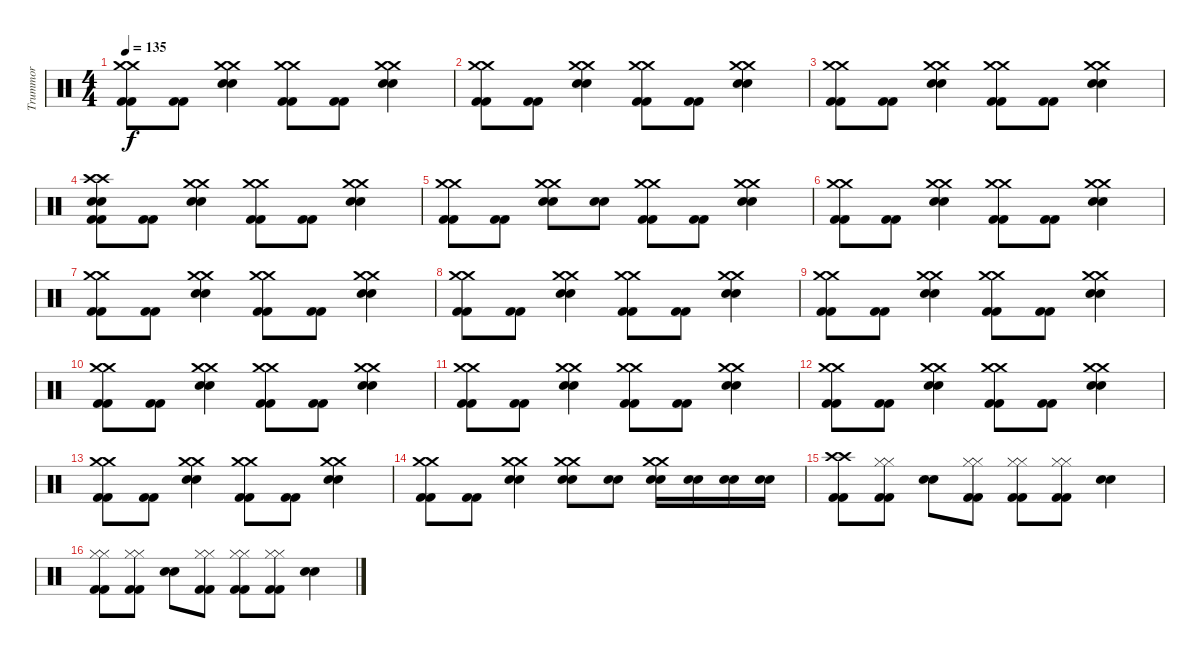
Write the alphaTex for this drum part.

\track ("Trummor" "Trummor") {instrument percussion}
\staff {score}
\articulation defaults
\ts (4 4)
\tempo 135
\clef neutral
\ks c
("Crash medium (hit)" "Crash medium (hit)" "Kick (hit) 2" "Kick (hit) 2").8{dy f} ("Kick (hit) 2" "Kick (hit) 2").8 ("Crash medium (hit)" "Crash medium (hit)" "Snare (hit) 2" "Snare (hit) 2").4 ("Crash medium (hit)" "Crash medium (hit)" "Kick (hit) 2" "Kick (hit) 2").8 ("Kick (hit) 2" "Kick (hit) 2").8 ("Crash medium (hit)" "Crash medium (hit)" "Snare (hit) 2" "Snare (hit) 2").4 |
("Crash medium (hit)" "Crash medium (hit)" "Kick (hit) 2" "Kick (hit) 2").8 ("Kick (hit) 2" "Kick (hit) 2").8 ("Crash medium (hit)" "Crash medium (hit)" "Snare (hit) 2" "Snare (hit) 2").4 ("Crash medium (hit)" "Crash medium (hit)" "Kick (hit) 2" "Kick (hit) 2").8 ("Kick (hit) 2" "Kick (hit) 2").8 ("Crash medium (hit)" "Crash medium (hit)" "Snare (hit) 2" "Snare (hit) 2").4 |
("Crash medium (hit)" "Crash medium (hit)" "Kick (hit) 2" "Kick (hit) 2").8 ("Kick (hit) 2" "Kick (hit) 2").8 ("Crash medium (hit)" "Crash medium (hit)" "Snare (hit) 2" "Snare (hit) 2").4 ("Crash medium (hit)" "Crash medium (hit)" "Kick (hit) 2" "Kick (hit) 2").8 ("Kick (hit) 2" "Kick (hit) 2").8 ("Crash medium (hit)" "Crash medium (hit)" "Snare (hit) 2" "Snare (hit) 2").4 |
("Crash high (hit)" "Crash high (hit)" "Snare (hit) 2" "Snare (hit) 2" "Kick (hit) 2" "Kick (hit) 2").8 ("Kick (hit) 2" "Kick (hit) 2").8 ("Crash medium (hit)" "Crash medium (hit)" "Snare (hit) 2" "Snare (hit) 2").4 ("Crash medium (hit)" "Crash medium (hit)" "Kick (hit) 2" "Kick (hit) 2").8 ("Kick (hit) 2" "Kick (hit) 2").8 ("Crash medium (hit)" "Crash medium (hit)" "Snare (hit) 2" "Snare (hit) 2").4 |
("Crash medium (hit)" "Crash medium (hit)" "Kick (hit) 2" "Kick (hit) 2").8 ("Kick (hit) 2" "Kick (hit) 2").8 ("Crash medium (hit)" "Crash medium (hit)" "Snare (hit) 2" "Snare (hit) 2").8 ("Snare (hit) 2" "Snare (hit) 2").8 ("Crash medium (hit)" "Crash medium (hit)" "Kick (hit) 2" "Kick (hit) 2").8 ("Kick (hit) 2" "Kick (hit) 2").8 ("Crash medium (hit)" "Crash medium (hit)" "Snare (hit) 2" "Snare (hit) 2").4 |
("Crash medium (hit)" "Crash medium (hit)" "Kick (hit) 2" "Kick (hit) 2").8 ("Kick (hit) 2" "Kick (hit) 2").8 ("Crash medium (hit)" "Crash medium (hit)" "Snare (hit) 2" "Snare (hit) 2").4 ("Crash medium (hit)" "Crash medium (hit)" "Kick (hit) 2" "Kick (hit) 2").8 ("Kick (hit) 2" "Kick (hit) 2").8 ("Crash medium (hit)" "Crash medium (hit)" "Snare (hit) 2" "Snare (hit) 2").4 |
("Crash medium (hit)" "Crash medium (hit)" "Kick (hit) 2" "Kick (hit) 2").8 ("Kick (hit) 2" "Kick (hit) 2").8 ("Crash medium (hit)" "Crash medium (hit)" "Snare (hit) 2" "Snare (hit) 2").4 ("Crash medium (hit)" "Crash medium (hit)" "Kick (hit) 2" "Kick (hit) 2").8 ("Kick (hit) 2" "Kick (hit) 2").8 ("Crash medium (hit)" "Crash medium (hit)" "Snare (hit) 2" "Snare (hit) 2").4 |
("Crash medium (hit)" "Crash medium (hit)" "Kick (hit) 2" "Kick (hit) 2").8 ("Kick (hit) 2" "Kick (hit) 2").8 ("Crash medium (hit)" "Crash medium (hit)" "Snare (hit) 2" "Snare (hit) 2").4 ("Crash medium (hit)" "Crash medium (hit)" "Kick (hit) 2" "Kick (hit) 2").8 ("Kick (hit) 2" "Kick (hit) 2").8 ("Crash medium (hit)" "Crash medium (hit)" "Snare (hit) 2" "Snare (hit) 2").4 |
("Crash medium (hit)" "Crash medium (hit)" "Kick (hit) 2" "Kick (hit) 2").8 ("Kick (hit) 2" "Kick (hit) 2").8 ("Crash medium (hit)" "Crash medium (hit)" "Snare (hit) 2" "Snare (hit) 2").4 ("Crash medium (hit)" "Crash medium (hit)" "Kick (hit) 2" "Kick (hit) 2").8 ("Kick (hit) 2" "Kick (hit) 2").8 ("Crash medium (hit)" "Crash medium (hit)" "Snare (hit) 2" "Snare (hit) 2").4 |
("Crash medium (hit)" "Crash medium (hit)" "Kick (hit) 2" "Kick (hit) 2").8 ("Kick (hit) 2" "Kick (hit) 2").8 ("Crash medium (hit)" "Crash medium (hit)" "Snare (hit) 2" "Snare (hit) 2").4 ("Crash medium (hit)" "Crash medium (hit)" "Kick (hit) 2" "Kick (hit) 2").8 ("Kick (hit) 2" "Kick (hit) 2").8 ("Crash medium (hit)" "Crash medium (hit)" "Snare (hit) 2" "Snare (hit) 2").4 |
("Crash medium (hit)" "Crash medium (hit)" "Kick (hit) 2" "Kick (hit) 2").8 ("Kick (hit) 2" "Kick (hit) 2").8 ("Crash medium (hit)" "Crash medium (hit)" "Snare (hit) 2" "Snare (hit) 2").4 ("Crash medium (hit)" "Crash medium (hit)" "Kick (hit) 2" "Kick (hit) 2").8 ("Kick (hit) 2" "Kick (hit) 2").8 ("Crash medium (hit)" "Crash medium (hit)" "Snare (hit) 2" "Snare (hit) 2").4 |
("Crash medium (hit)" "Crash medium (hit)" "Kick (hit) 2" "Kick (hit) 2").8 ("Kick (hit) 2" "Kick (hit) 2").8 ("Crash medium (hit)" "Crash medium (hit)" "Snare (hit) 2" "Snare (hit) 2").4 ("Crash medium (hit)" "Crash medium (hit)" "Kick (hit) 2" "Kick (hit) 2").8 ("Kick (hit) 2" "Kick (hit) 2").8 ("Crash medium (hit)" "Crash medium (hit)" "Snare (hit) 2" "Snare (hit) 2").4 |
("Crash medium (hit)" "Crash medium (hit)" "Kick (hit) 2" "Kick (hit) 2").8 ("Kick (hit) 2" "Kick (hit) 2").8 ("Crash medium (hit)" "Crash medium (hit)" "Snare (hit) 2" "Snare (hit) 2").4 ("Crash medium (hit)" "Crash medium (hit)" "Kick (hit) 2" "Kick (hit) 2").8 ("Kick (hit) 2" "Kick (hit) 2").8 ("Crash medium (hit)" "Crash medium (hit)" "Snare (hit) 2" "Snare (hit) 2").4 |
("Crash medium (hit)" "Crash medium (hit)" "Kick (hit) 2" "Kick (hit) 2").8 ("Kick (hit) 2" "Kick (hit) 2").8 ("Crash medium (hit)" "Crash medium (hit)" "Snare (hit) 2" "Snare (hit) 2").4 ("Crash medium (hit)" "Crash medium (hit)" "Snare (hit) 2" "Snare (hit) 2").8 ("Snare (hit) 2" "Snare (hit) 2").8 ("Crash medium (hit)" "Crash medium (hit)" "Snare (hit) 2" "Snare (hit) 2").16 ("Snare (hit) 2" "Snare (hit) 2").16 ("Snare (hit) 2" "Snare (hit) 2").16 ("Snare (hit) 2" "Snare (hit) 2").16 |
("Crash high (hit)" "Crash high (hit)" "Kick (hit) 2" "Kick (hit) 2").8 ("Hi-Hat (closed)" "Hi-Hat (closed)" "Kick (hit) 2" "Kick (hit) 2").8 ("Snare (hit) 2" "Snare (hit) 2").8 ("Hi-Hat (closed)" "Hi-Hat (closed)" "Kick (hit) 2" "Kick (hit) 2").8 ("Hi-Hat (closed)" "Hi-Hat (closed)" "Kick (hit) 2" "Kick (hit) 2").8 ("Hi-Hat (closed)" "Hi-Hat (closed)" "Kick (hit) 2" "Kick (hit) 2").8 ("Snare (hit) 2" "Snare (hit) 2").4 |
("Hi-Hat (closed)" "Hi-Hat (closed)" "Kick (hit) 2" "Kick (hit) 2").8 ("Hi-Hat (closed)" "Hi-Hat (closed)" "Kick (hit) 2" "Kick (hit) 2").8 ("Snare (hit) 2" "Snare (hit) 2").8 ("Hi-Hat (closed)" "Hi-Hat (closed)" "Kick (hit) 2" "Kick (hit) 2").8 ("Hi-Hat (closed)" "Hi-Hat (closed)" "Kick (hit) 2" "Kick (hit) 2").8 ("Hi-Hat (closed)" "Hi-Hat (closed)" "Kick (hit) 2" "Kick (hit) 2").8 ("Snare (hit) 2" "Snare (hit) 2").4
